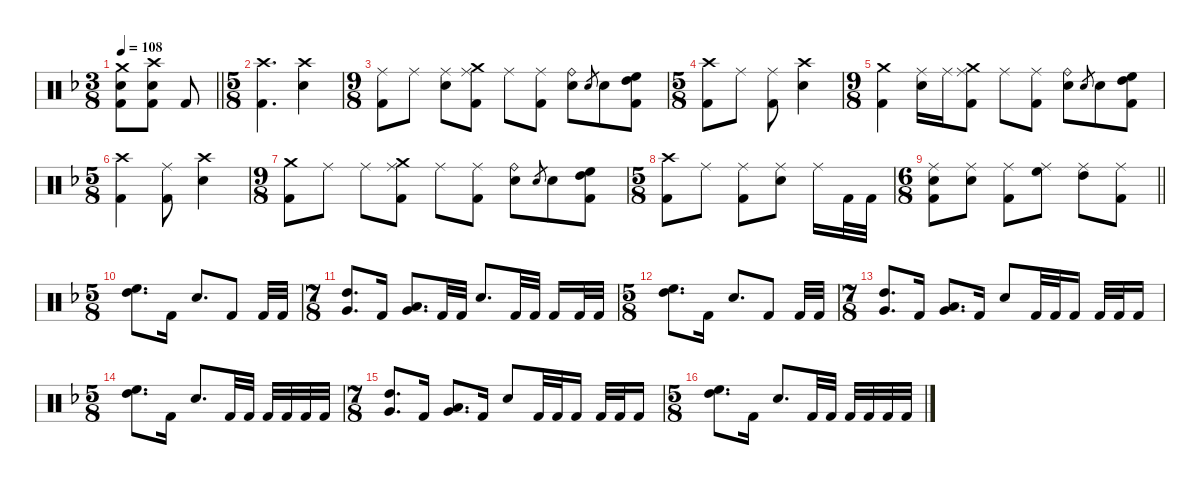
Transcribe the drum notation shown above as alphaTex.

\defaultSystemsLayout 4
\hideDynamics
\bracketExtendMode nobrackets
\singleTrackTrackNamePolicy hidden
\multiTrackTrackNamePolicy hidden
\firstSystemTrackNameMode fullname
\firstSystemTrackNameOrientation horizontal
\otherSystemsTrackNameOrientation horizontal
\track ("Danny Carey" "drm.") {defaultSystemsLayout 4 instrument percussion}
\staff {score}
\articulation defaults
\ts (3 8)
\beaming (8 2 2 2 2)
\tempo 108
\clef neutral
\barLineRight lightlight
\ks dminor
("Crash medium (hit)"{acc forcenatural} "Snare (hit) 2"{acc forcenatural} "Kick (hit) 2"{acc forcenatural}).8{dy f beam Down} ("Crash high (hit)"{acc forcenatural} "Snare (hit) 2"{acc forcenatural} "Kick (hit) 2"{acc forcenatural}).8{beam Down} "Kick (hit) 2"{acc forcenatural}.8{beam Up} |
\ts (5 8)
\beaming (8 2 2 2 2)
("Crash high (hit)"{acc forcenatural} "Kick (hit) 2"{acc forcenatural}).4{d beam Down} ("Crash high (hit)"{acc forcenatural} "Snare (hit) 2"{acc forcenatural}).4{beam Down} |
\ts (9 8)
\beaming (8 2 2 2 3)
("Ride (middle)"{acc forcenatural} "Kick (hit) 2"{acc forcenatural}).8{beam Down} "Ride (middle)"{acc forcenatural}.8{beam Down} ("Ride (middle)"{acc forcenatural} "Snare (hit) 2"{acc forcenatural}).8{beam Down} ("Crash medium (hit)"{acc forcenatural} "Ride (middle)"{acc forcenatural} "Kick (hit) 2"{acc forcenatural}).8{beam Down} "Ride (middle)"{acc forcenatural}.8{beam Down} ("Ride (middle)"{acc forcenatural} "Kick (hit) 2"{acc forcenatural}).8{beam Down} ("Ride (bell)"{acc forcenatural} "Snare (hit) 2"{acc forcenatural}).8{beam Down} "Electric Snare (hit)"{acc forcenatural}.8{gr dy mf beam Up} "Snare (hit) 2"{acc forcenatural}.8{dy f beam Down} ("High Floor Tom (hit)"{acc forcenatural} "High Tom (hit)"{acc forcenatural} "Kick (hit) 2"{acc forcenatural}).8{beam Down} |
\ts (5 8)
\beaming (8 2 2 2 2)
("Crash high (hit)"{acc forcenatural} "Kick (hit) 2"{acc forcenatural}).8{beam Down} "Ride (middle)"{acc forcenatural}.8{beam Down} ("Ride (middle)"{acc forcenatural} "Kick (hit) 2"{acc forcenatural}).8{beam Down} ("Crash high (hit)"{acc forcenatural} "Snare (hit) 2"{acc forcenatural}).4{beam Down} |
\ts (9 8)
\beaming (8 2 2 2 3)
("Crash medium (hit)"{acc forcenatural} "Kick (hit) 2"{acc forcenatural}).4{beam Down} ("Ride (middle)"{acc forcenatural} "Snare (hit) 2"{acc forcenatural}).16{beam Down} "Ride (middle)"{acc forcenatural}.16{beam Down} ("Crash medium (hit)"{acc forcenatural} "Ride (middle)"{acc forcenatural} "Kick (hit) 2"{acc forcenatural}).8{beam Down} "Ride (middle)"{acc forcenatural}.8{beam Down} ("Ride (middle)"{acc forcenatural} "Kick (hit) 2"{acc forcenatural}).8{beam Down} ("Ride (bell)"{acc forcenatural} "Snare (hit) 2"{acc forcenatural}).8{beam Down} "Electric Snare (hit)"{acc forcenatural}.8{gr dy mf beam Up} "Snare (hit) 2"{acc forcenatural}.8{dy f beam Down} ("High Floor Tom (hit)"{acc forcenatural} "High Tom (hit)"{acc forcenatural} "Kick (hit) 2"{acc forcenatural}).8{beam Down} |
\ts (5 8)
\beaming (8 2 2 2 2)
("Crash high (hit)"{acc forcenatural} "Kick (hit) 2"{acc forcenatural}).4{beam Down} ("Ride (middle)"{acc forcenatural} "Kick (hit) 2"{acc forcenatural}).8{beam Down} ("Crash high (hit)"{acc forcenatural} "Snare (hit) 2"{acc forcenatural}).4{beam Down} |
\ts (9 8)
\beaming (8 2 2 2 3)
("Crash medium (hit)"{acc forcenatural} "Kick (hit) 2"{acc forcenatural}).8{beam Down} "Ride (middle)"{acc forcenatural}.8{beam Down} "Ride (middle)"{acc forcenatural}.8{beam Down} ("Crash medium (hit)"{acc forcenatural} "Ride (middle)"{acc forcenatural} "Kick (hit) 2"{acc forcenatural}).8{beam Down} "Ride (middle)"{acc forcenatural}.8{beam Down} ("Ride (middle)"{acc forcenatural} "Kick (hit) 2"{acc forcenatural}).8{beam Down} ("Ride (bell)"{acc forcenatural} "Snare (hit) 2"{acc forcenatural}).8{beam Down} "Electric Snare (hit)"{acc forcenatural}.8{gr dy mf beam Up} "Snare (hit) 2"{acc forcenatural}.8{dy f beam Down} ("High Floor Tom (hit)"{acc forcenatural} "High Tom (hit)"{acc forcenatural} "Kick (hit) 2"{acc forcenatural}).8{beam Down} |
\ts (5 8)
\beaming (8 2 2 2 2)
("Crash high (hit)"{acc forcenatural} "Kick (hit) 2"{acc forcenatural}).8{beam Down} "Ride (middle)"{acc forcenatural}.8{beam Down} ("Ride (middle)"{acc forcenatural} "Kick (hit) 2"{acc forcenatural}).8{beam Down} ("Ride (middle)"{acc forcenatural} "Snare (hit) 2"{acc forcenatural}).8{beam Down} "Ride (middle)"{acc forcenatural}.16{beam Down} "Kick (hit) 2"{acc forcenatural}.32{beam Down} "Kick (hit) 2"{acc forcenatural}.32{beam Down} |
\ts (6 8)
\beaming (8 2 2 2 2)
\barLineRight lightlight
("Ride (middle)"{acc forcenatural} "Snare (hit) 2"{acc forcenatural} "Kick (hit) 2"{acc forcenatural}).8{beam Down} ("Ride (middle)"{acc forcenatural} "Snare (hit) 2"{acc forcenatural}).8{beam Down} ("Ride (middle)"{acc forcenatural} "Kick (hit) 2"{acc forcenatural}).8{beam Down} ("Ride (middle)"{acc forcenatural} "High Floor Tom (hit)"{acc forcenatural}).8{beam Down} ("Ride (middle)"{acc forcenatural} "High Tom (hit)"{acc forcenatural}).8{beam Down} ("Ride (middle)"{acc forcenatural} "Kick (hit) 2"{acc forcenatural}).8{beam Down} |
\ts (5 8)
\beaming (8 2 2 2 2)
("High Floor Tom (hit)"{acc forcenatural} "High Tom (hit)"{acc forcenatural}).8{d beam Down} "Kick (hit) 2"{acc forcenatural}.16{beam Down} "Snare (hit) 2"{acc forcenatural}.8{d beam Up} "Kick (hit) 2"{acc forcenatural}.8{beam Up} "Kick (hit) 2"{acc forcenatural}.32{beam Up} "Kick (hit) 2"{acc forcenatural}.32{beam Up} |
\ts (7 8)
\beaming (8 2 2 2 2)
("High Tom (hit)"{acc forcenatural} "Very Low Tom (hit)"{acc forcenatural}).8{d beam Up} "Kick (hit) 2"{acc forcenatural}.16{beam Up} ("Very Low Tom (hit)"{acc forcenatural} "Low Floor Tom (hit)"{acc forcenatural}).8{d beam Up} "Kick (hit) 2"{acc forcenatural}.32{beam Up} "Kick (hit) 2"{acc forcenatural}.32{beam Up} "Snare (hit) 2"{acc forcenatural}.8{d beam Up} "Kick (hit) 2"{acc forcenatural}.32{beam Up} "Kick (hit) 2"{acc forcenatural}.32{beam Up} "Kick (hit) 2"{acc forcenatural}.16{beam Up} "Kick (hit) 2"{acc forcenatural}.32{beam Up} "Kick (hit) 2"{acc forcenatural}.32{beam Up} |
\ts (5 8)
\beaming (8 2 2 2 2)
("High Floor Tom (hit)"{acc forcenatural} "High Tom (hit)"{acc forcenatural}).8{d beam Down} "Kick (hit) 2"{acc forcenatural}.16{beam Down} "Snare (hit) 2"{acc forcenatural}.8{d beam Up} "Kick (hit) 2"{acc forcenatural}.8{beam Up} "Kick (hit) 2"{acc forcenatural}.32{beam Up} "Kick (hit) 2"{acc forcenatural}.32{beam Up} |
\ts (7 8)
\beaming (8 2 2 2 2)
("High Tom (hit)"{acc forcenatural} "Very Low Tom (hit)"{acc forcenatural}).8{d beam Up} "Kick (hit) 2"{acc forcenatural}.16{beam Up} ("Very Low Tom (hit)"{acc forcenatural} "Low Floor Tom (hit)"{acc forcenatural}).8{d beam Up} "Kick (hit) 2"{acc forcenatural}.16{beam Up} "Snare (hit) 2"{acc forcenatural}.8{beam Up} "Kick (hit) 2"{acc forcenatural}.32{beam Up} "Kick (hit) 2"{acc forcenatural}.32{beam Up} "Kick (hit) 2"{acc forcenatural}.16{beam Up} "Kick (hit) 2"{acc forcenatural}.32{beam Up} "Kick (hit) 2"{acc forcenatural}.32{beam Up} "Kick (hit) 2"{acc forcenatural}.16{beam Up} |
\ts (5 8)
\beaming (8 2 2 2 2)
("High Floor Tom (hit)"{acc forcenatural} "High Tom (hit)"{acc forcenatural}).8{d beam Down} "Kick (hit) 2"{acc forcenatural}.16{beam Down} "Snare (hit) 2"{acc forcenatural}.8{d beam Up} "Kick (hit) 2"{acc forcenatural}.32{beam Up} "Kick (hit) 2"{acc forcenatural}.32{beam Up} "Kick (hit) 2"{acc forcenatural}.32{beam Up} "Kick (hit) 2"{acc forcenatural}.32{beam Up} "Kick (hit) 2"{acc forcenatural}.32{beam Up} "Kick (hit) 2"{acc forcenatural}.32{beam Up} |
\ts (7 8)
\beaming (8 2 2 2 2)
("High Tom (hit)"{acc forcenatural} "Very Low Tom (hit)"{acc forcenatural}).8{d beam Up} "Kick (hit) 2"{acc forcenatural}.16{beam Up} ("Very Low Tom (hit)"{acc forcenatural} "Low Floor Tom (hit)"{acc forcenatural}).8{d beam Up} "Kick (hit) 2"{acc forcenatural}.16{beam Up} "Snare (hit) 2"{acc forcenatural}.8{beam Up} "Kick (hit) 2"{acc forcenatural}.32{beam Up} "Kick (hit) 2"{acc forcenatural}.32{beam Up} "Kick (hit) 2"{acc forcenatural}.16{beam Up} "Kick (hit) 2"{acc forcenatural}.32{beam Up} "Kick (hit) 2"{acc forcenatural}.32{beam Up} "Kick (hit) 2"{acc forcenatural}.16{beam Up} |
\ts (5 8)
\beaming (8 2 2 2 2)
("High Floor Tom (hit)"{acc forcenatural} "High Tom (hit)"{acc forcenatural}).8{d beam Down} "Kick (hit) 2"{acc forcenatural}.16{beam Down} "Snare (hit) 2"{acc forcenatural}.8{d beam Up} "Kick (hit) 2"{acc forcenatural}.32{beam Up} "Kick (hit) 2"{acc forcenatural}.32{beam Up} "Kick (hit) 2"{acc forcenatural}.32{beam Up} "Kick (hit) 2"{acc forcenatural}.32{beam Up} "Kick (hit) 2"{acc forcenatural}.32{beam Up} "Kick (hit) 2"{acc forcenatural}.32{beam Up}
